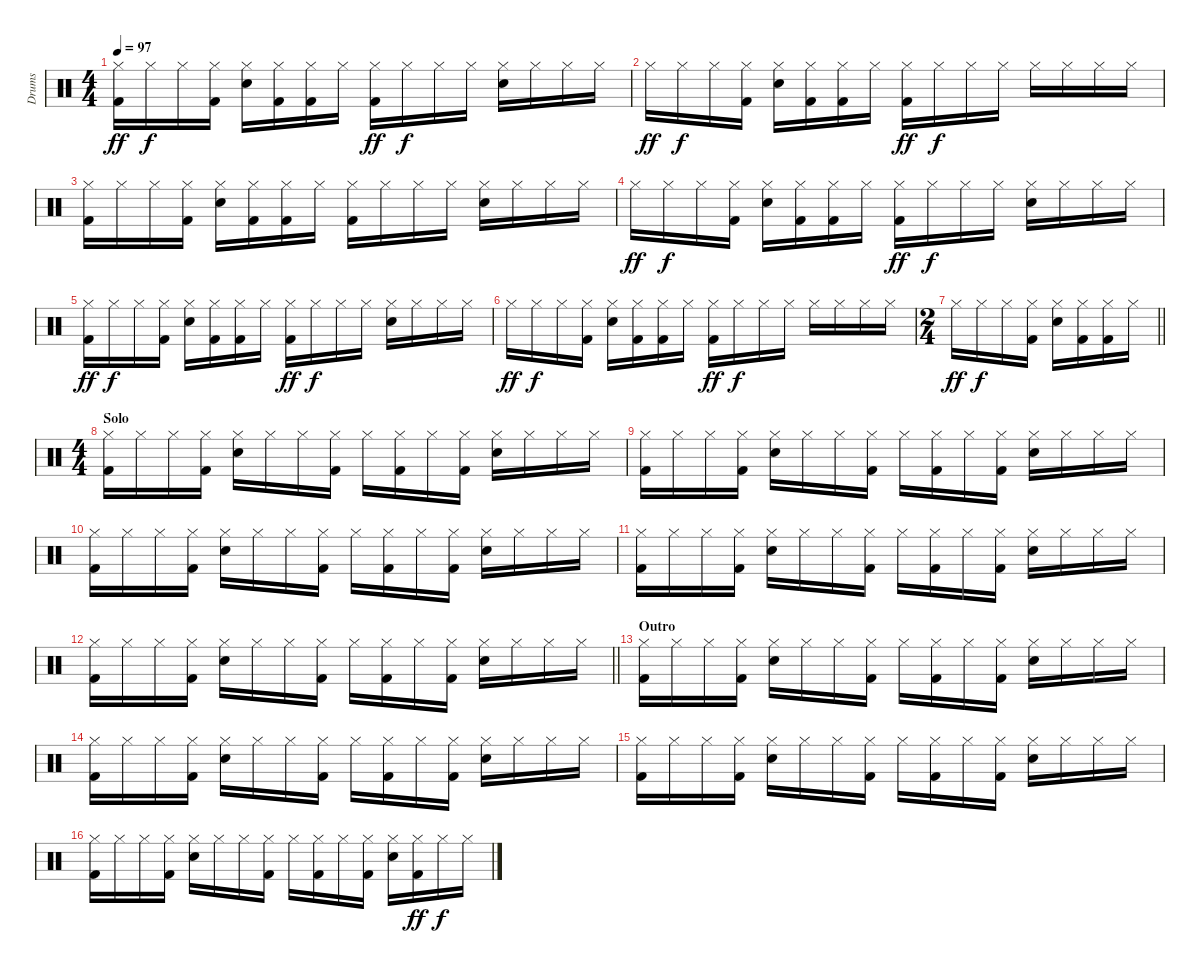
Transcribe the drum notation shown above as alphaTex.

\track ("Drums" "Drums") {instrument percussion}
\staff {score}
\articulation defaults
\ts (4 4)
\tempo 97
\clef neutral
\ks c
("Hi-Hat (closed)" "Kick (hit) 2").16{dy ff} "Hi-Hat (closed)".16{dy f} "Hi-Hat (closed)".16 ("Hi-Hat (closed)" "Kick (hit) 2").16 ("Hi-Hat (closed)" "Snare (hit) 2").16 ("Hi-Hat (closed)" "Kick (hit) 2").16 ("Hi-Hat (closed)" "Kick (hit) 2").16 "Hi-Hat (closed)".16 ("Hi-Hat (closed)" "Kick (hit) 2").16{dy ff} "Hi-Hat (closed)".16{dy f} "Hi-Hat (closed)".16 "Hi-Hat (closed)".16 ("Hi-Hat (closed)" "Snare (hit) 2").16 "Hi-Hat (closed)".16 "Hi-Hat (closed)".16 "Hi-Hat (closed)".16 |
"Hi-Hat (closed)".16{dy ff} "Hi-Hat (closed)".16{dy f} "Hi-Hat (closed)".16 ("Hi-Hat (closed)" "Kick (hit) 2").16 ("Hi-Hat (closed)" "Snare (hit) 2").16 ("Hi-Hat (closed)" "Kick (hit) 2").16 ("Hi-Hat (closed)" "Kick (hit) 2").16 "Hi-Hat (closed)".16 ("Hi-Hat (closed)" "Kick (hit) 2").16{dy ff} "Hi-Hat (closed)".16{dy f} "Hi-Hat (closed)".16 "Hi-Hat (closed)".16 "Hi-Hat (closed)".16 "Hi-Hat (closed)".16 "Hi-Hat (closed)".16 "Hi-Hat (closed)".16 |
("Hi-Hat (closed)" "Kick (hit) 2").16 "Hi-Hat (closed)".16 "Hi-Hat (closed)".16 ("Hi-Hat (closed)" "Kick (hit) 2").16 ("Hi-Hat (closed)" "Snare (hit) 2").16 ("Hi-Hat (closed)" "Kick (hit) 2").16 ("Hi-Hat (closed)" "Kick (hit) 2").16 "Hi-Hat (closed)".16 ("Hi-Hat (closed)" "Kick (hit) 2").16 "Hi-Hat (closed)".16 "Hi-Hat (closed)".16 "Hi-Hat (closed)".16 ("Hi-Hat (closed)" "Snare (hit) 2").16 "Hi-Hat (closed)".16 "Hi-Hat (closed)".16 "Hi-Hat (closed)".16 |
"Hi-Hat (closed)".16{dy ff} "Hi-Hat (closed)".16{dy f} "Hi-Hat (closed)".16 ("Hi-Hat (closed)" "Kick (hit) 2").16 ("Hi-Hat (closed)" "Snare (hit) 2").16 ("Hi-Hat (closed)" "Kick (hit) 2").16 ("Hi-Hat (closed)" "Kick (hit) 2").16 "Hi-Hat (closed)".16 ("Hi-Hat (closed)" "Kick (hit) 2").16{dy ff} "Hi-Hat (closed)".16{dy f} "Hi-Hat (closed)".16 "Hi-Hat (closed)".16 ("Hi-Hat (closed)" "Snare (hit) 2").16 "Hi-Hat (closed)".16 "Hi-Hat (closed)".16 "Hi-Hat (closed)".16 |
("Hi-Hat (closed)" "Kick (hit) 2").16{dy ff} "Hi-Hat (closed)".16{dy f} "Hi-Hat (closed)".16 ("Hi-Hat (closed)" "Kick (hit) 2").16 ("Hi-Hat (closed)" "Snare (hit) 2").16 ("Hi-Hat (closed)" "Kick (hit) 2").16 ("Hi-Hat (closed)" "Kick (hit) 2").16 "Hi-Hat (closed)".16 ("Hi-Hat (closed)" "Kick (hit) 2").16{dy ff} "Hi-Hat (closed)".16{dy f} "Hi-Hat (closed)".16 "Hi-Hat (closed)".16 ("Hi-Hat (closed)" "Snare (hit) 2").16 "Hi-Hat (closed)".16 "Hi-Hat (closed)".16 "Hi-Hat (closed)".16 |
"Hi-Hat (closed)".16{dy ff} "Hi-Hat (closed)".16{dy f} "Hi-Hat (closed)".16 ("Hi-Hat (closed)" "Kick (hit) 2").16 ("Hi-Hat (closed)" "Snare (hit) 2").16 ("Hi-Hat (closed)" "Kick (hit) 2").16 ("Hi-Hat (closed)" "Kick (hit) 2").16 "Hi-Hat (closed)".16 ("Hi-Hat (closed)" "Kick (hit) 2").16{dy ff} "Hi-Hat (closed)".16{dy f} "Hi-Hat (closed)".16 "Hi-Hat (closed)".16 "Hi-Hat (closed)".16 "Hi-Hat (closed)".16 "Hi-Hat (closed)".16 "Hi-Hat (closed)".16 |
\ts (2 4)
\barLineRight lightlight "Hi-Hat (closed)".16{dy ff} "Hi-Hat (closed)".16{dy f} "Hi-Hat (closed)".16
("Hi-Hat (closed)" "Kick (hit) 2").16 ("Hi-Hat (closed)" "Snare (hit) 2").16 ("Hi-Hat (closed)" "Kick (hit) 2").16 ("Hi-Hat (closed)" "Kick (hit) 2").16 "Hi-Hat (closed)".16 |
\ts (4 4)
\section ("" "Solo")
("Hi-Hat (closed)" "Kick (hit) 2").16 "Hi-Hat (closed)".16 "Hi-Hat (closed)".16 ("Hi-Hat (closed)" "Kick (hit) 2").16 ("Hi-Hat (closed)" "Snare (hit) 2").16 "Hi-Hat (closed)".16 "Hi-Hat (closed)".16 ("Hi-Hat (closed)" "Kick (hit) 2").16 "Hi-Hat (closed)".16 ("Hi-Hat (closed)" "Kick (hit) 2").16 "Hi-Hat (closed)".16 ("Hi-Hat (closed)" "Kick (hit) 2").16 ("Hi-Hat (closed)" "Snare (hit) 2").16 "Hi-Hat (closed)".16 "Hi-Hat (closed)".16 "Hi-Hat (closed)".16 |
("Hi-Hat (closed)" "Kick (hit) 2").16 "Hi-Hat (closed)".16 "Hi-Hat (closed)".16 ("Hi-Hat (closed)" "Kick (hit) 2").16 ("Hi-Hat (closed)" "Snare (hit) 2").16 "Hi-Hat (closed)".16 "Hi-Hat (closed)".16 ("Hi-Hat (closed)" "Kick (hit) 2").16 "Hi-Hat (closed)".16 ("Hi-Hat (closed)" "Kick (hit) 2").16 "Hi-Hat (closed)".16 ("Hi-Hat (closed)" "Kick (hit) 2").16 ("Hi-Hat (closed)" "Snare (hit) 2").16 "Hi-Hat (closed)".16 "Hi-Hat (closed)".16 "Hi-Hat (closed)".16 |
("Hi-Hat (closed)" "Kick (hit) 2").16 "Hi-Hat (closed)".16 "Hi-Hat (closed)".16 ("Hi-Hat (closed)" "Kick (hit) 2").16 ("Hi-Hat (closed)" "Snare (hit) 2").16 "Hi-Hat (closed)".16 "Hi-Hat (closed)".16 ("Hi-Hat (closed)" "Kick (hit) 2").16 "Hi-Hat (closed)".16 ("Hi-Hat (closed)" "Kick (hit) 2").16 "Hi-Hat (closed)".16 ("Hi-Hat (closed)" "Kick (hit) 2").16 ("Hi-Hat (closed)" "Snare (hit) 2").16 "Hi-Hat (closed)".16 "Hi-Hat (closed)".16 "Hi-Hat (closed)".16 |
("Hi-Hat (closed)" "Kick (hit) 2").16 "Hi-Hat (closed)".16 "Hi-Hat (closed)".16 ("Hi-Hat (closed)" "Kick (hit) 2").16 ("Hi-Hat (closed)" "Snare (hit) 2").16 "Hi-Hat (closed)".16 "Hi-Hat (closed)".16 ("Hi-Hat (closed)" "Kick (hit) 2").16 "Hi-Hat (closed)".16 ("Hi-Hat (closed)" "Kick (hit) 2").16 "Hi-Hat (closed)".16 ("Hi-Hat (closed)" "Kick (hit) 2").16 ("Hi-Hat (closed)" "Snare (hit) 2").16 "Hi-Hat (closed)".16 "Hi-Hat (closed)".16 "Hi-Hat (closed)".16 |
\barLineRight lightlight
("Hi-Hat (closed)" "Kick (hit) 2").16 "Hi-Hat (closed)".16 "Hi-Hat (closed)".16 ("Hi-Hat (closed)" "Kick (hit) 2").16 ("Hi-Hat (closed)" "Snare (hit) 2").16 "Hi-Hat (closed)".16 "Hi-Hat (closed)".16 ("Hi-Hat (closed)" "Kick (hit) 2").16 "Hi-Hat (closed)".16 ("Hi-Hat (closed)" "Kick (hit) 2").16 "Hi-Hat (closed)".16 ("Hi-Hat (closed)" "Kick (hit) 2").16 ("Hi-Hat (closed)" "Snare (hit) 2").16 "Hi-Hat (closed)".16 "Hi-Hat (closed)".16 "Hi-Hat (closed)".16 |
\section ("" "Outro")
("Hi-Hat (closed)" "Kick (hit) 2").16 "Hi-Hat (closed)".16 "Hi-Hat (closed)".16 ("Hi-Hat (closed)" "Kick (hit) 2").16 ("Hi-Hat (closed)" "Snare (hit) 2").16 "Hi-Hat (closed)".16 "Hi-Hat (closed)".16 ("Hi-Hat (closed)" "Kick (hit) 2").16 "Hi-Hat (closed)".16 ("Hi-Hat (closed)" "Kick (hit) 2").16 "Hi-Hat (closed)".16 ("Hi-Hat (closed)" "Kick (hit) 2").16 ("Hi-Hat (closed)" "Snare (hit) 2").16 "Hi-Hat (closed)".16 "Hi-Hat (closed)".16 "Hi-Hat (closed)".16 |
("Hi-Hat (closed)" "Kick (hit) 2").16 "Hi-Hat (closed)".16 "Hi-Hat (closed)".16 ("Hi-Hat (closed)" "Kick (hit) 2").16 ("Hi-Hat (closed)" "Snare (hit) 2").16 "Hi-Hat (closed)".16 "Hi-Hat (closed)".16 ("Hi-Hat (closed)" "Kick (hit) 2").16 "Hi-Hat (closed)".16 ("Hi-Hat (closed)" "Kick (hit) 2").16 "Hi-Hat (closed)".16 ("Hi-Hat (closed)" "Kick (hit) 2").16 ("Hi-Hat (closed)" "Snare (hit) 2").16 "Hi-Hat (closed)".16 "Hi-Hat (closed)".16 "Hi-Hat (closed)".16 |
("Hi-Hat (closed)" "Kick (hit) 2").16 "Hi-Hat (closed)".16 "Hi-Hat (closed)".16 ("Hi-Hat (closed)" "Kick (hit) 2").16 ("Hi-Hat (closed)" "Snare (hit) 2").16 "Hi-Hat (closed)".16 "Hi-Hat (closed)".16 ("Hi-Hat (closed)" "Kick (hit) 2").16 "Hi-Hat (closed)".16 ("Hi-Hat (closed)" "Kick (hit) 2").16 "Hi-Hat (closed)".16 ("Hi-Hat (closed)" "Kick (hit) 2").16 ("Hi-Hat (closed)" "Snare (hit) 2").16 "Hi-Hat (closed)".16 "Hi-Hat (closed)".16 "Hi-Hat (closed)".16 |
("Hi-Hat (closed)" "Kick (hit) 2").16 "Hi-Hat (closed)".16 "Hi-Hat (closed)".16 ("Hi-Hat (closed)" "Kick (hit) 2").16 ("Hi-Hat (closed)" "Snare (hit) 2").16 "Hi-Hat (closed)".16 "Hi-Hat (closed)".16 ("Hi-Hat (closed)" "Kick (hit) 2").16 "Hi-Hat (closed)".16 ("Hi-Hat (closed)" "Kick (hit) 2").16 "Hi-Hat (closed)".16 ("Hi-Hat (closed)" "Kick (hit) 2").16 ("Hi-Hat (closed)" "Snare (hit) 2").16 ("Hi-Hat (closed)" "Kick (hit) 2").16{dy ff} "Hi-Hat (closed)".16{dy f} "Hi-Hat (closed)".16
